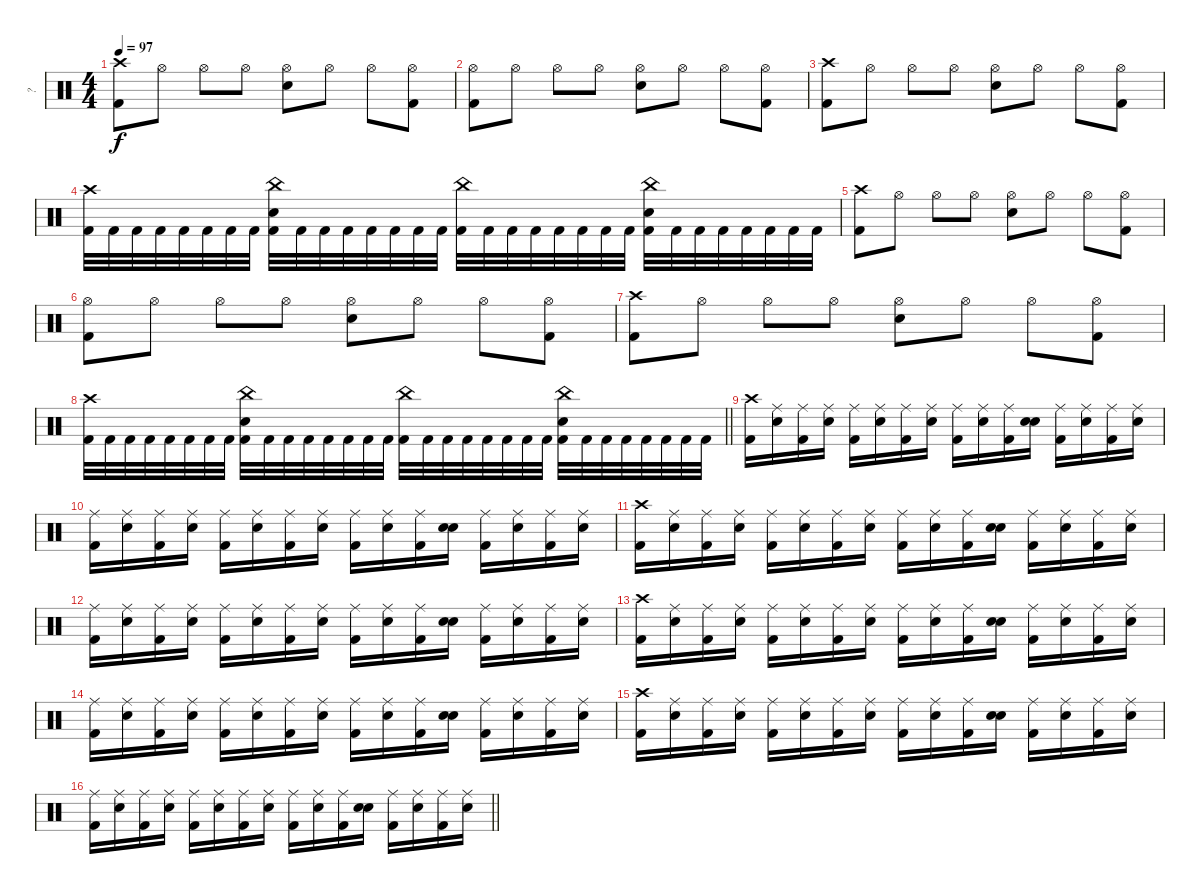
\track ("?" "?") {instrument percussion}
\staff {score}
\articulation defaults
\ts (4 4)
\tempo 97
\clef neutral
\ks c
("Crash high (hit)" "Kick (hit) 2").8{dy f} "Hi-Hat (open)".8 "Hi-Hat (open)".8 "Hi-Hat (open)".8 ("Hi-Hat (open)" "Electric Snare (hit)").8 "Hi-Hat (open)".8 "Hi-Hat (open)".8 ("Hi-Hat (open)" "Kick (hit) 2").8 |
("Hi-Hat (open)" "Kick (hit) 2").8 "Hi-Hat (open)".8 "Hi-Hat (open)".8 "Hi-Hat (open)".8 ("Hi-Hat (open)" "Electric Snare (hit)").8 "Hi-Hat (open)".8 "Hi-Hat (open)".8 ("Hi-Hat (open)" "Kick (hit) 2").8 |
("Crash high (hit)" "Kick (hit) 2").8 "Hi-Hat (open)".8 "Hi-Hat (open)".8 "Hi-Hat (open)".8 ("Hi-Hat (open)" "Electric Snare (hit)").8 "Hi-Hat (open)".8 "Hi-Hat (open)".8 ("Hi-Hat (open)" "Kick (hit) 2").8 |
("Crash high (hit)" "Kick (hit) 2").32 "Kick (hit) 2".32 "Kick (hit) 2".32 "Kick (hit) 2".32 "Kick (hit) 2".32 "Kick (hit) 2".32 "Kick (hit) 2".32 "Kick (hit) 2".32 ("China (hit)" "Electric Snare (hit)" "Kick (hit) 2").32 "Kick (hit) 2".32 "Kick (hit) 2".32 "Kick (hit) 2".32 "Kick (hit) 2".32 "Kick (hit) 2".32 "Kick (hit) 2".32 "Kick (hit) 2".32 ("China (hit)" "Kick (hit) 2").32 "Kick (hit) 2".32 "Kick (hit) 2".32 "Kick (hit) 2".32 "Kick (hit) 2".32 "Kick (hit) 2".32 "Kick (hit) 2".32 "Kick (hit) 2".32 ("China (hit)" "Electric Snare (hit)" "Kick (hit) 2").32 "Kick (hit) 2".32 "Kick (hit) 2".32 "Kick (hit) 2".32 "Kick (hit) 2".32 "Kick (hit) 2".32 "Kick (hit) 2".32 "Kick (hit) 2".32 |
("Crash high (hit)" "Kick (hit) 2").8 "Hi-Hat (open)".8 "Hi-Hat (open)".8 "Hi-Hat (open)".8 ("Hi-Hat (open)" "Electric Snare (hit)").8 "Hi-Hat (open)".8 "Hi-Hat (open)".8 ("Hi-Hat (open)" "Kick (hit) 2").8 |
("Hi-Hat (open)" "Kick (hit) 2").8 "Hi-Hat (open)".8 "Hi-Hat (open)".8 "Hi-Hat (open)".8 ("Hi-Hat (open)" "Electric Snare (hit)").8 "Hi-Hat (open)".8 "Hi-Hat (open)".8 ("Hi-Hat (open)" "Kick (hit) 2").8 |
("Crash high (hit)" "Kick (hit) 2").8 "Hi-Hat (open)".8 "Hi-Hat (open)".8 "Hi-Hat (open)".8 ("Hi-Hat (open)" "Electric Snare (hit)").8 "Hi-Hat (open)".8 "Hi-Hat (open)".8 ("Hi-Hat (open)" "Kick (hit) 2").8 |
\barLineRight lightlight
("Crash high (hit)" "Kick (hit) 2").32 "Kick (hit) 2".32 "Kick (hit) 2".32 "Kick (hit) 2".32 "Kick (hit) 2".32 "Kick (hit) 2".32 "Kick (hit) 2".32 "Kick (hit) 2".32 ("China (hit)" "Electric Snare (hit)" "Kick (hit) 2").32 "Kick (hit) 2".32 "Kick (hit) 2".32 "Kick (hit) 2".32 "Kick (hit) 2".32 "Kick (hit) 2".32 "Kick (hit) 2".32 "Kick (hit) 2".32 ("China (hit)" "Kick (hit) 2").32 "Kick (hit) 2".32 "Kick (hit) 2".32 "Kick (hit) 2".32 "Kick (hit) 2".32 "Kick (hit) 2".32 "Kick (hit) 2".32 "Kick (hit) 2".32 ("China (hit)" "Electric Snare (hit)" "Kick (hit) 2").32 "Kick (hit) 2".32 "Kick (hit) 2".32 "Kick (hit) 2".32 "Kick (hit) 2".32 "Kick (hit) 2".32 "Kick (hit) 2".32 "Kick (hit) 2".32 |
("Crash high (hit)" "Kick (hit) 2").16 ("Ride (middle)" "Electric Snare (hit)").16 ("Ride (middle)" "Kick (hit) 2").16 ("Ride (middle)" "Electric Snare (hit)").16 ("Ride (middle)" "Kick (hit) 2").16 ("Ride (middle)" "Electric Snare (hit)").16 ("Ride (middle)" "Kick (hit) 2").16 ("Ride (middle)" "Electric Snare (hit)").16 ("Ride (middle)" "Kick (hit) 2").16 ("Ride (middle)" "Electric Snare (hit)").16 ("Ride (middle)" "Kick (hit) 2").16 ("Snare (hit)" "Electric Snare (hit)").16 ("Ride (middle)" "Kick (hit) 2").16 ("Ride (middle)" "Electric Snare (hit)").16 ("Ride (middle)" "Kick (hit) 2").16 ("Ride (middle)" "Electric Snare (hit)").16 |
("Ride (middle)" "Kick (hit) 2").16 ("Ride (middle)" "Electric Snare (hit)").16 ("Ride (middle)" "Kick (hit) 2").16 ("Ride (middle)" "Electric Snare (hit)").16 ("Ride (middle)" "Kick (hit) 2").16 ("Ride (middle)" "Electric Snare (hit)").16 ("Ride (middle)" "Kick (hit) 2").16 ("Ride (middle)" "Electric Snare (hit)").16 ("Ride (middle)" "Kick (hit) 2").16 ("Ride (middle)" "Electric Snare (hit)").16 ("Ride (middle)" "Kick (hit) 2").16 ("Snare (hit)" "Electric Snare (hit)").16 ("Ride (middle)" "Kick (hit) 2").16 ("Ride (middle)" "Electric Snare (hit)").16 ("Ride (middle)" "Kick (hit) 2").16 ("Ride (middle)" "Electric Snare (hit)").16 |
("Crash high (hit)" "Kick (hit) 2").16 ("Ride (middle)" "Electric Snare (hit)").16 ("Ride (middle)" "Kick (hit) 2").16 ("Ride (middle)" "Electric Snare (hit)").16 ("Ride (middle)" "Kick (hit) 2").16 ("Ride (middle)" "Electric Snare (hit)").16 ("Ride (middle)" "Kick (hit) 2").16 ("Ride (middle)" "Electric Snare (hit)").16 ("Ride (middle)" "Kick (hit) 2").16 ("Ride (middle)" "Electric Snare (hit)").16 ("Ride (middle)" "Kick (hit) 2").16 ("Snare (hit)" "Electric Snare (hit)").16 ("Ride (middle)" "Kick (hit) 2").16 ("Ride (middle)" "Electric Snare (hit)").16 ("Ride (middle)" "Kick (hit) 2").16 ("Ride (middle)" "Electric Snare (hit)").16 |
("Ride (middle)" "Kick (hit) 2").16 ("Ride (middle)" "Electric Snare (hit)").16 ("Ride (middle)" "Kick (hit) 2").16 ("Ride (middle)" "Electric Snare (hit)").16 ("Ride (middle)" "Kick (hit) 2").16 ("Ride (middle)" "Electric Snare (hit)").16 ("Ride (middle)" "Kick (hit) 2").16 ("Ride (middle)" "Electric Snare (hit)").16 ("Ride (middle)" "Kick (hit) 2").16 ("Ride (middle)" "Electric Snare (hit)").16 ("Ride (middle)" "Kick (hit) 2").16 ("Snare (hit)" "Electric Snare (hit)").16 ("Ride (middle)" "Kick (hit) 2").16 ("Ride (middle)" "Electric Snare (hit)").16 ("Ride (middle)" "Kick (hit) 2").16 ("Ride (middle)" "Electric Snare (hit)").16 |
("Crash high (hit)" "Kick (hit) 2").16 ("Ride (middle)" "Electric Snare (hit)").16 ("Ride (middle)" "Kick (hit) 2").16 ("Ride (middle)" "Electric Snare (hit)").16 ("Ride (middle)" "Kick (hit) 2").16 ("Ride (middle)" "Electric Snare (hit)").16 ("Ride (middle)" "Kick (hit) 2").16 ("Ride (middle)" "Electric Snare (hit)").16 ("Ride (middle)" "Kick (hit) 2").16 ("Ride (middle)" "Electric Snare (hit)").16 ("Ride (middle)" "Kick (hit) 2").16 ("Snare (hit)" "Electric Snare (hit)").16 ("Ride (middle)" "Kick (hit) 2").16 ("Ride (middle)" "Electric Snare (hit)").16 ("Ride (middle)" "Kick (hit) 2").16 ("Ride (middle)" "Electric Snare (hit)").16 |
("Ride (middle)" "Kick (hit) 2").16 ("Ride (middle)" "Electric Snare (hit)").16 ("Ride (middle)" "Kick (hit) 2").16 ("Ride (middle)" "Electric Snare (hit)").16 ("Ride (middle)" "Kick (hit) 2").16 ("Ride (middle)" "Electric Snare (hit)").16 ("Ride (middle)" "Kick (hit) 2").16 ("Ride (middle)" "Electric Snare (hit)").16 ("Ride (middle)" "Kick (hit) 2").16 ("Ride (middle)" "Electric Snare (hit)").16 ("Ride (middle)" "Kick (hit) 2").16 ("Snare (hit)" "Electric Snare (hit)").16 ("Ride (middle)" "Kick (hit) 2").16 ("Ride (middle)" "Electric Snare (hit)").16 ("Ride (middle)" "Kick (hit) 2").16 ("Ride (middle)" "Electric Snare (hit)").16 |
("Crash high (hit)" "Kick (hit) 2").16 ("Ride (middle)" "Electric Snare (hit)").16 ("Ride (middle)" "Kick (hit) 2").16 ("Ride (middle)" "Electric Snare (hit)").16 ("Ride (middle)" "Kick (hit) 2").16 ("Ride (middle)" "Electric Snare (hit)").16 ("Ride (middle)" "Kick (hit) 2").16 ("Ride (middle)" "Electric Snare (hit)").16 ("Ride (middle)" "Kick (hit) 2").16 ("Ride (middle)" "Electric Snare (hit)").16 ("Ride (middle)" "Kick (hit) 2").16 ("Snare (hit)" "Electric Snare (hit)").16 ("Ride (middle)" "Kick (hit) 2").16 ("Ride (middle)" "Electric Snare (hit)").16 ("Ride (middle)" "Kick (hit) 2").16 ("Ride (middle)" "Electric Snare (hit)").16 |
\barLineRight lightlight
("Ride (middle)" "Kick (hit) 2").16 ("Ride (middle)" "Electric Snare (hit)").16 ("Ride (middle)" "Kick (hit) 2").16 ("Ride (middle)" "Electric Snare (hit)").16 ("Ride (middle)" "Kick (hit) 2").16 ("Ride (middle)" "Electric Snare (hit)").16 ("Ride (middle)" "Kick (hit) 2").16 ("Ride (middle)" "Electric Snare (hit)").16 ("Ride (middle)" "Kick (hit) 2").16 ("Ride (middle)" "Electric Snare (hit)").16 ("Ride (middle)" "Kick (hit) 2").16 ("Snare (hit)" "Electric Snare (hit)").16 ("Ride (middle)" "Kick (hit) 2").16 ("Ride (middle)" "Electric Snare (hit)").16 ("Ride (middle)" "Kick (hit) 2").16 ("Ride (middle)" "Electric Snare (hit)").16
